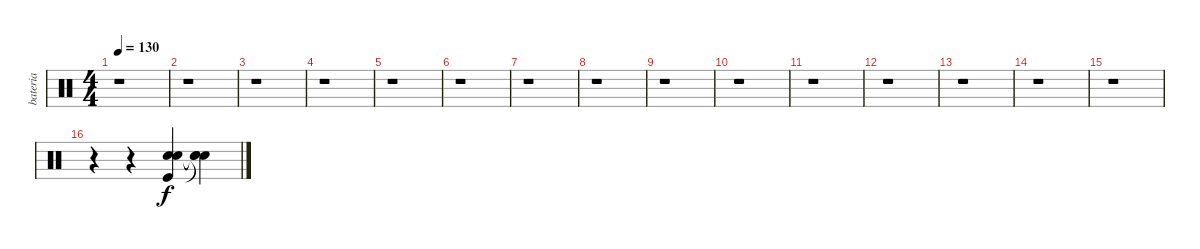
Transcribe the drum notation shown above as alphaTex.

\track ("bateria" "bateria") {instrument percussion}
\staff {score}
\articulation defaults
\ts (4 4)
\tempo 130
\clef neutral
\ks c
r.1{dy f} |
r.1 |
r.1 |
r.1 |
r.1 |
r.1 |
r.1 |
r.1 |
r.1 |
r.1 |
r.1 |
r.1 |
r.1 |
r.1 |
r.1 |
r.4 r.4 ("Kick (hit)" "Snare (hit) 2" "Snare (hit) 2").4 ("Snare (hit)"{t} "Snare (hit)"{t} "Snare (hit)"{t}).4
